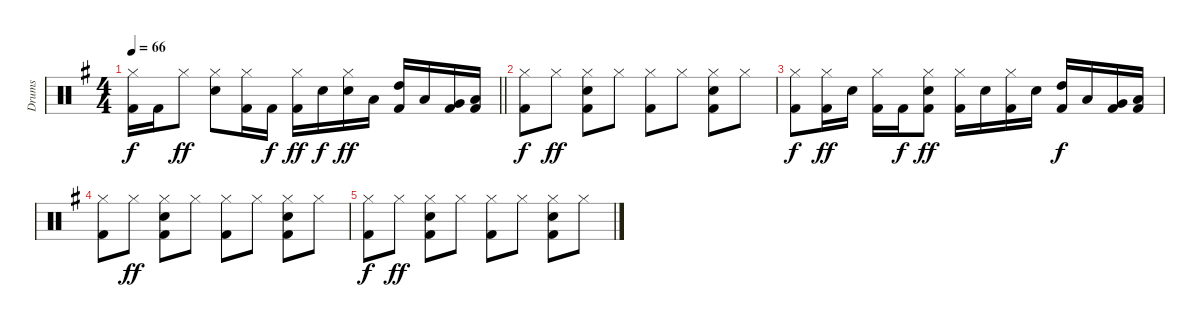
\track ("Drums" "Drums") {instrument percussion}
\staff {score}
\articulation defaults
\ts (4 4)
\tempo 66
\clef neutral
\barLineRight lightlight
\ks g
("Hi-Hat (closed)" "Kick (hit) 2").16{dy f} "Kick (hit) 2".16 "Hi-Hat (closed)".8{dy ff} ("Hi-Hat (closed)" "Snare (hit) 2").8 ("Hi-Hat (closed)" "Kick (hit) 2").16 "Kick (hit) 2".16{dy f} ("Hi-Hat (closed)" "Kick (hit) 2").16{dy ff} "Snare (hit) 2".16{dy f} ("Hi-Hat (closed)" "Snare (hit) 2").16{dy ff} "Low Tom (hit)".16 ("High Tom (hit)" "Kick (hit) 2").16 "Low Tom (hit)".16 ("Very Low Tom (hit)" "Kick (hit) 2").16 ("Low Floor Tom (hit)" "Kick (hit) 2").16 |
("Hi-Hat (closed)" "Kick (hit) 2").8{dy f} "Hi-Hat (closed)".8{dy ff} ("Hi-Hat (closed)" "Snare (hit) 2" "Kick (hit) 2").8 "Hi-Hat (closed)".8 ("Hi-Hat (closed)" "Kick (hit) 2").8 "Hi-Hat (closed)".8 ("Hi-Hat (closed)" "Snare (hit) 2" "Kick (hit) 2").8 "Hi-Hat (closed)".8 |
("Hi-Hat (closed)" "Kick (hit) 2").8{dy f volume 0} ("Hi-Hat (closed)" "Kick (hit) 2").16{dy ff} "Snare (hit) 2".16 ("Hi-Hat (closed)" "Kick (hit) 2").16 "Kick (hit) 2".16{dy f} ("Hi-Hat (closed)" "Snare (hit) 2" "Kick (hit) 2").8{dy ff} ("Hi-Hat (closed)" "Kick (hit) 2").16 "Snare (hit) 2".16 ("Hi-Hat (closed)" "Kick (hit) 2").16 "Snare (hit) 2".16 ("High Tom (hit)" "Kick (hit) 2").16{dy f} "Low Tom (hit)".16 ("Very Low Tom (hit)" "Kick (hit) 2").16 ("Low Floor Tom (hit)" "Kick (hit) 2").16 |
("Hi-Hat (closed)" "Kick (hit) 2").8 "Hi-Hat (closed)".8{dy ff} ("Hi-Hat (closed)" "Snare (hit) 2" "Kick (hit) 2").8 "Hi-Hat (closed)".8 ("Hi-Hat (closed)" "Kick (hit) 2").8 "Hi-Hat (closed)".8 ("Hi-Hat (closed)" "Snare (hit) 2" "Kick (hit) 2").8 "Hi-Hat (closed)".8 |
("Hi-Hat (closed)" "Kick (hit) 2").8{dy f} "Hi-Hat (closed)".8{dy ff} ("Hi-Hat (closed)" "Snare (hit) 2" "Kick (hit) 2").8 "Hi-Hat (closed)".8 ("Hi-Hat (closed)" "Kick (hit) 2").8 "Hi-Hat (closed)".8 ("Hi-Hat (closed)" "Snare (hit) 2" "Kick (hit) 2").8 "Hi-Hat (closed)".8
